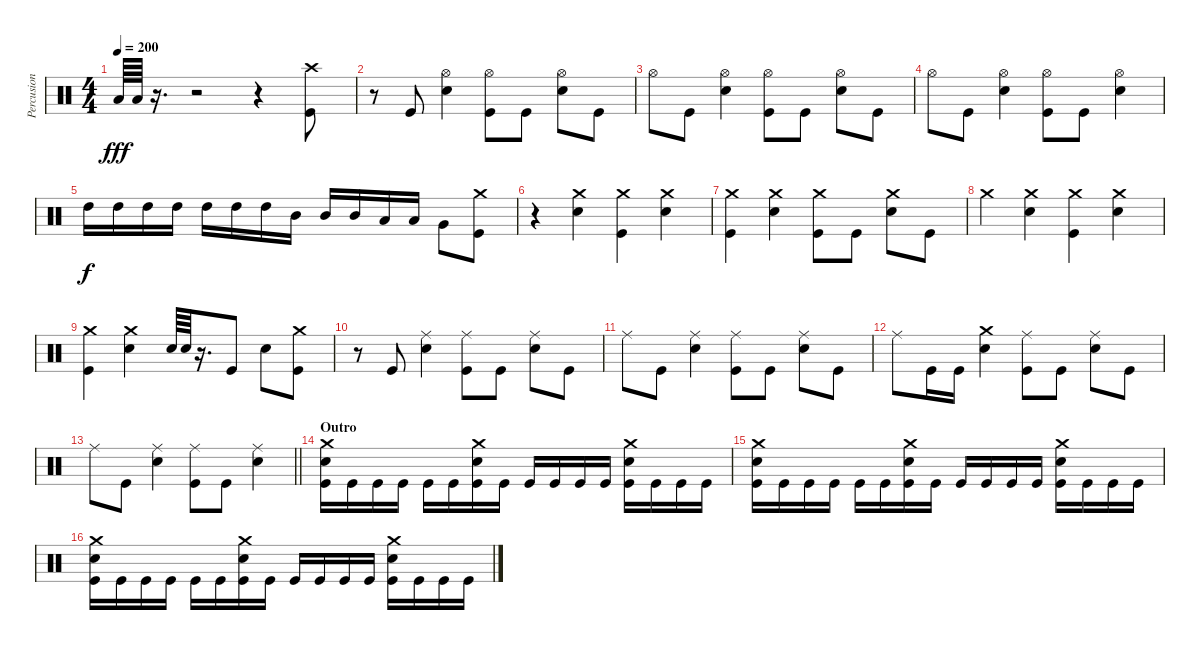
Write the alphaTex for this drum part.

\track ("Percusion" "Percusion") {instrument percussion}
\staff {score}
\articulation defaults
\ts (4 4)
\tempo 200
\clef neutral
\ks c "Low Floor Tom (hit)".64{dy fff} "Low Floor Tom (hit)".64
r.16{d} r.2 r.4 ("Crash high (hit)" "Kick (hit)").8 |
r.8 "Kick (hit)".8 ("Hi-Hat (open)" "Snare (hit) 2").4 ("Hi-Hat (open)" "Kick (hit)").8 "Kick (hit)".8 ("Snare (hit) 2" "Hi-Hat (open)").8 "Kick (hit)".8 |
"Hi-Hat (open)".8 "Kick (hit)".8 ("Hi-Hat (open)" "Snare (hit) 2").4 ("Hi-Hat (open)" "Kick (hit)").8 "Kick (hit)".8 ("Snare (hit) 2" "Hi-Hat (open)").8 "Kick (hit)".8 |
"Hi-Hat (open)".8 "Kick (hit)".8 ("Hi-Hat (open)" "Snare (hit) 2").4 ("Hi-Hat (open)" "Kick (hit)").8 "Kick (hit)".8 ("Snare (hit) 2" "Hi-Hat (open)").4 |
"High Tom (hit)".16{dy f} "High Tom (hit)".16 "High Tom (hit)".16 "High Tom (hit)".16 "High Tom (hit)".16 "High Tom (hit)".16 "High Tom (hit)".16 "Mid Tom (hit)".16 "Mid Tom (hit)".16 "Mid Tom (hit)".16 "Low Tom (hit)".16 "Low Tom (hit)".16 "Very Low Tom (hit)".8 ("Crash medium (hit)" "Kick (hit)").8 |
r.4 ("Crash medium (hit)" "Snare (hit) 2").4 ("Crash medium (hit)" "Kick (hit)").4 ("Crash medium (hit)" "Snare (hit) 2").4 |
("Crash medium (hit)" "Kick (hit)").4 ("Snare (hit) 2" "Crash medium (hit)").4 ("Kick (hit)" "Crash medium (hit)").8 "Kick (hit)".8 ("Snare (hit) 2" "Crash medium (hit)").8 "Kick (hit)".8 |
"Crash medium (hit)".4 ("Snare (hit) 2" "Crash medium (hit)").4 ("Crash medium (hit)" "Kick (hit)").4 ("Snare (hit) 2" "Crash medium (hit)").4 |
("Crash medium (hit)" "Kick (hit)").4 ("Snare (hit) 2" "Crash medium (hit)").4 "Snare (hit) 2".64 "Snare (hit) 2".64 r.16{d} "Kick (hit)".8 "Snare (hit) 2".8 ("Crash medium (hit)" "Kick (hit)").8 |
r.8 "Kick (hit)".8 ("Ride (middle)" "Snare (hit) 2").4 ("Ride (middle)" "Kick (hit)").8 "Kick (hit)".8 ("Ride (middle)" "Snare (hit) 2").8 "Kick (hit)".8 |
"Ride (middle)".8 "Kick (hit)".8 ("Snare (hit) 2" "Ride (middle)").4 ("Ride (middle)" "Kick (hit)").8 "Kick (hit)".8 ("Ride (middle)" "Snare (hit) 2").8 "Kick (hit)".8 |
"Ride (middle)".8 "Kick (hit)".16 "Kick (hit)".16 ("Snare (hit) 2" "Crash medium (hit)").4 ("Ride (middle)" "Kick (hit)").8 "Kick (hit)".8 ("Snare (hit) 2" "Ride (middle)").8 "Kick (hit)".8 |
\barLineRight lightlight "Ride (middle)".8 "Kick (hit)".8
("Snare (hit) 2" "Ride (middle)").4 ("Ride (middle)" "Kick (hit)").8 "Kick (hit)".8 ("Ride (middle)" "Snare (hit) 2").4 |
\section ("" "Outro")
("Kick (hit)" "Snare (hit) 2" "Crash medium (hit)").16 "Kick (hit)".16 "Kick (hit)".16 "Kick (hit)".16 "Kick (hit)".16 "Kick (hit)".16 ("Kick (hit)" "Snare (hit) 2" "Crash medium (hit)").16 "Kick (hit)".16 "Kick (hit)".16 "Kick (hit)".16 "Kick (hit)".16 "Kick (hit)".16 ("Kick (hit)" "Snare (hit) 2" "Crash medium (hit)").16 "Kick (hit)".16 "Kick (hit)".16 "Kick (hit)".16 |
("Kick (hit)" "Snare (hit) 2" "Crash medium (hit)").16 "Kick (hit)".16 "Kick (hit)".16 "Kick (hit)".16 "Kick (hit)".16 "Kick (hit)".16 ("Kick (hit)" "Snare (hit) 2" "Crash medium (hit)").16 "Kick (hit)".16 "Kick (hit)".16 "Kick (hit)".16 "Kick (hit)".16 "Kick (hit)".16 ("Kick (hit)" "Snare (hit) 2" "Crash medium (hit)").16 "Kick (hit)".16 "Kick (hit)".16 "Kick (hit)".16 |
("Kick (hit)" "Snare (hit) 2" "Crash medium (hit)").16 "Kick (hit)".16 "Kick (hit)".16 "Kick (hit)".16 "Kick (hit)".16 "Kick (hit)".16 ("Kick (hit)" "Snare (hit) 2" "Crash medium (hit)").16 "Kick (hit)".16 "Kick (hit)".16 "Kick (hit)".16 "Kick (hit)".16 "Kick (hit)".16 ("Kick (hit)" "Snare (hit) 2" "Crash medium (hit)").16 "Kick (hit)".16 "Kick (hit)".16 "Kick (hit)".16
